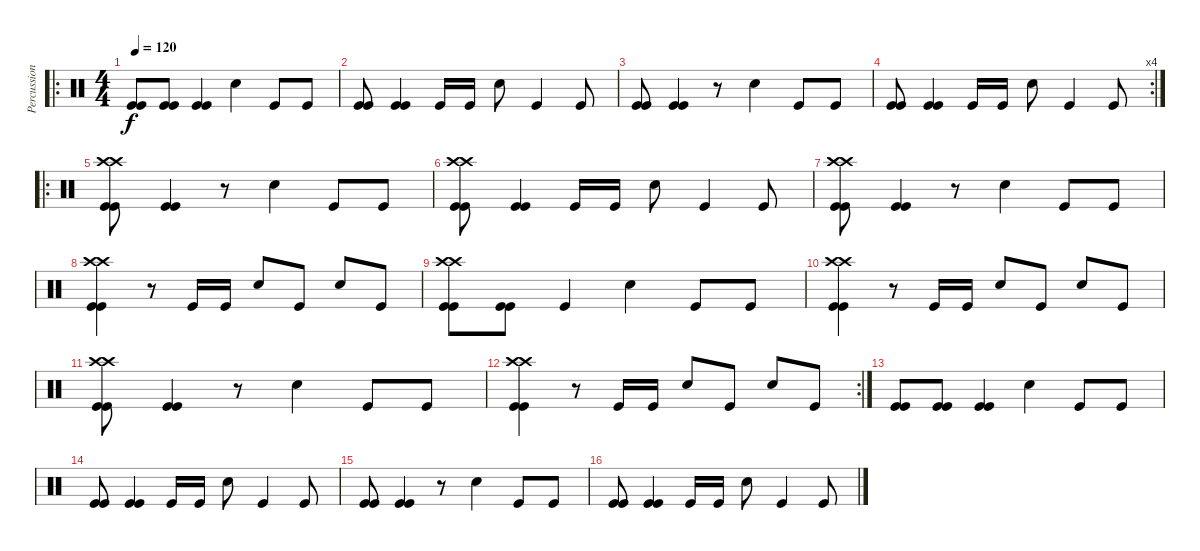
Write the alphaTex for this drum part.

\track ("Percussion" "Percussion") {instrument percussion}
\staff {score}
\articulation defaults
\ro
\ts (4 4)
\tempo 120
\clef neutral
\ks c
("Kick (hit)" "Kick (hit)").8{dy f} ("Kick (hit)" "Kick (hit)").8 ("Kick (hit)" "Kick (hit)").4 "Electric Snare (hit)".4 "Kick (hit)".8 "Kick (hit)".8 |
("Kick (hit)" "Kick (hit)").8 ("Kick (hit)" "Kick (hit)").4 "Kick (hit)".16 "Kick (hit)".16 "Electric Snare (hit)".8 "Kick (hit)".4 "Kick (hit)".8 |
("Kick (hit)" "Kick (hit)").8 ("Kick (hit)" "Kick (hit)").4 r.8 "Electric Snare (hit)".4 "Kick (hit)".8 "Kick (hit)".8 |
\rc 4
("Kick (hit)" "Kick (hit)").8 ("Kick (hit)" "Kick (hit)").4 "Kick (hit)".16 "Kick (hit)".16 "Electric Snare (hit)".8 "Kick (hit)".4 "Kick (hit)".8 |
\ro
("Kick (hit)" "Kick (hit)" "Crash high (hit)" "Crash high (hit)").8 ("Kick (hit)" "Kick (hit)").4 r.8 "Electric Snare (hit)".4 "Kick (hit)".8 "Kick (hit)".8 |
("Kick (hit)" "Kick (hit)" "Crash high (hit)" "Crash high (hit)").8 ("Kick (hit)" "Kick (hit)").4 "Kick (hit)".16 "Kick (hit)".16 "Electric Snare (hit)".8 "Kick (hit)".4 "Kick (hit)".8 |
("Kick (hit)" "Kick (hit)" "Crash high (hit)" "Crash high (hit)").8 ("Kick (hit)" "Kick (hit)").4 r.8 "Electric Snare (hit)".4 "Kick (hit)".8 "Kick (hit)".8 |
("Kick (hit)" "Kick (hit)" "Crash high (hit)" "Crash high (hit)").4 r.8 "Kick (hit)".16 "Kick (hit)".16 "Electric Snare (hit)".8 "Kick (hit)".8 "Electric Snare (hit)".8 "Kick (hit)".8 |
("Kick (hit)" "Kick (hit)" "Crash high (hit)" "Crash high (hit)").8 ("Kick (hit)" "Kick (hit)").8 "Kick (hit)".4 "Electric Snare (hit)".4 "Kick (hit)".8 "Kick (hit)".8 |
("Kick (hit)" "Kick (hit)" "Crash high (hit)" "Crash high (hit)").4 r.8 "Kick (hit)".16 "Kick (hit)".16 "Electric Snare (hit)".8 "Kick (hit)".8 "Electric Snare (hit)".8 "Kick (hit)".8 |
("Kick (hit)" "Kick (hit)" "Crash high (hit)" "Crash high (hit)").8 ("Kick (hit)" "Kick (hit)").4 r.8 "Electric Snare (hit)".4 "Kick (hit)".8 "Kick (hit)".8 |
\rc 2
("Kick (hit)" "Kick (hit)" "Crash high (hit)" "Crash high (hit)").4 r.8 "Kick (hit)".16 "Kick (hit)".16 "Electric Snare (hit)".8 "Kick (hit)".8 "Electric Snare (hit)".8 "Kick (hit)".8 |
("Kick (hit)" "Kick (hit)").8 ("Kick (hit)" "Kick (hit)").8 ("Kick (hit)" "Kick (hit)").4 "Electric Snare (hit)".4 "Kick (hit)".8 "Kick (hit)".8 |
("Kick (hit)" "Kick (hit)").8 ("Kick (hit)" "Kick (hit)").4 "Kick (hit)".16 "Kick (hit)".16 "Electric Snare (hit)".8 "Kick (hit)".4 "Kick (hit)".8 |
("Kick (hit)" "Kick (hit)").8 ("Kick (hit)" "Kick (hit)").4 r.8 "Electric Snare (hit)".4 "Kick (hit)".8 "Kick (hit)".8 |
("Kick (hit)" "Kick (hit)").8 ("Kick (hit)" "Kick (hit)").4 "Kick (hit)".16 "Kick (hit)".16 "Electric Snare (hit)".8 "Kick (hit)".4 "Kick (hit)".8
